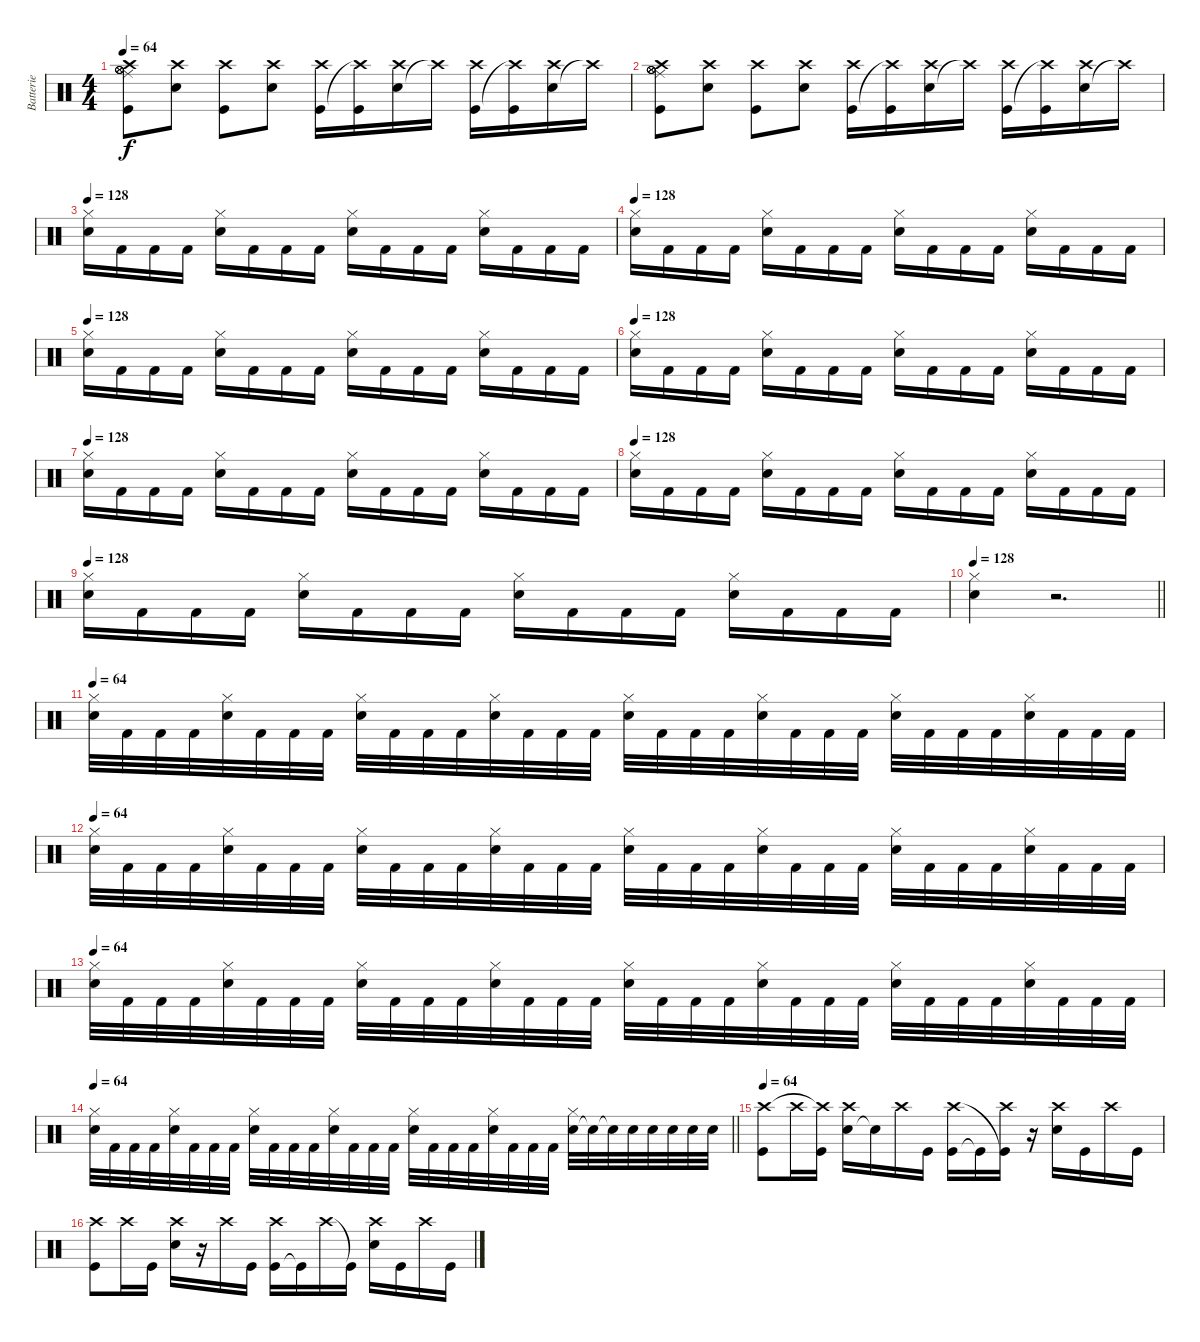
\track ("Batterie" "Batterie") {instrument percussion}
\staff {score}
\articulation defaults
\ts (4 4)
\tempo 64
\clef neutral
\ks c
("Kick (hit)" "Hi-Hat (open)" "Hi-Hat (open)" "Hi-Hat (open)" "Ride (middle)" "Crash high (hit)").8{dy f} ("Snare (hit) 2" "Crash high (hit)").8 ("Kick (hit)" "Crash high (hit)").8 ("Snare (hit) 2" "Crash high (hit)").8 ("Kick (hit)" "Crash high (hit)").16 ("Crash high (hit)"{t} "Kick (hit)").16 ("Snare (hit) 2" "Crash high (hit)").16 "Crash high (hit)"{t}.16 ("Kick (hit)" "Crash high (hit)").16 ("Crash high (hit)"{t} "Kick (hit)").16 ("Snare (hit) 2" "Crash high (hit)").16 "Crash high (hit)"{t}.16 |
("Kick (hit)" "Hi-Hat (open)" "Hi-Hat (open)" "Hi-Hat (open)" "Ride (middle)" "Crash high (hit)").8 ("Snare (hit) 2" "Crash high (hit)").8 ("Kick (hit)" "Crash high (hit)").8 ("Snare (hit) 2" "Crash high (hit)").8 ("Kick (hit)" "Crash high (hit)").16 ("Crash high (hit)"{t} "Kick (hit)").16 ("Snare (hit) 2" "Crash high (hit)").16 "Crash high (hit)"{t}.16 ("Kick (hit)" "Crash high (hit)").16 ("Crash high (hit)"{t} "Kick (hit)").16 ("Snare (hit) 2" "Crash high (hit)").16 "Crash high (hit)"{t}.16 |
\tempo 128
("Electric Snare (hit)" "Hi-Hat (closed)").16 "Kick (hit) 2".16 "Kick (hit) 2".16 "Kick (hit) 2".16 ("Hi-Hat (closed)" "Electric Snare (hit)").16 "Kick (hit) 2".16 "Kick (hit) 2".16 "Kick (hit) 2".16 ("Electric Snare (hit)" "Hi-Hat (closed)").16 "Kick (hit) 2".16 "Kick (hit) 2".16 "Kick (hit) 2".16 ("Electric Snare (hit)" "Hi-Hat (closed)").16 "Kick (hit) 2".16 "Kick (hit) 2".16 "Kick (hit) 2".16 |
\tempo 128
("Electric Snare (hit)" "Hi-Hat (closed)").16 "Kick (hit) 2".16 "Kick (hit) 2".16 "Kick (hit) 2".16 ("Hi-Hat (closed)" "Electric Snare (hit)").16 "Kick (hit) 2".16 "Kick (hit) 2".16 "Kick (hit) 2".16 ("Electric Snare (hit)" "Hi-Hat (closed)").16 "Kick (hit) 2".16 "Kick (hit) 2".16 "Kick (hit) 2".16 ("Electric Snare (hit)" "Hi-Hat (closed)").16 "Kick (hit) 2".16 "Kick (hit) 2".16 "Kick (hit) 2".16 |
\tempo 128
("Electric Snare (hit)" "Hi-Hat (closed)").16 "Kick (hit) 2".16 "Kick (hit) 2".16 "Kick (hit) 2".16 ("Hi-Hat (closed)" "Electric Snare (hit)").16 "Kick (hit) 2".16 "Kick (hit) 2".16 "Kick (hit) 2".16 ("Electric Snare (hit)" "Hi-Hat (closed)").16 "Kick (hit) 2".16 "Kick (hit) 2".16 "Kick (hit) 2".16 ("Electric Snare (hit)" "Hi-Hat (closed)").16 "Kick (hit) 2".16 "Kick (hit) 2".16 "Kick (hit) 2".16 |
\tempo 128
("Electric Snare (hit)" "Hi-Hat (closed)").16 "Kick (hit) 2".16 "Kick (hit) 2".16 "Kick (hit) 2".16 ("Hi-Hat (closed)" "Electric Snare (hit)").16 "Kick (hit) 2".16 "Kick (hit) 2".16 "Kick (hit) 2".16 ("Electric Snare (hit)" "Hi-Hat (closed)").16 "Kick (hit) 2".16 "Kick (hit) 2".16 "Kick (hit) 2".16 ("Electric Snare (hit)" "Hi-Hat (closed)").16 "Kick (hit) 2".16 "Kick (hit) 2".16 "Kick (hit) 2".16 |
\tempo 128
("Electric Snare (hit)" "Hi-Hat (closed)").16 "Kick (hit) 2".16 "Kick (hit) 2".16 "Kick (hit) 2".16 ("Hi-Hat (closed)" "Electric Snare (hit)").16 "Kick (hit) 2".16 "Kick (hit) 2".16 "Kick (hit) 2".16 ("Electric Snare (hit)" "Hi-Hat (closed)").16 "Kick (hit) 2".16 "Kick (hit) 2".16 "Kick (hit) 2".16 ("Electric Snare (hit)" "Hi-Hat (closed)").16 "Kick (hit) 2".16 "Kick (hit) 2".16 "Kick (hit) 2".16 |
\tempo 128
("Electric Snare (hit)" "Hi-Hat (closed)").16 "Kick (hit) 2".16 "Kick (hit) 2".16 "Kick (hit) 2".16 ("Hi-Hat (closed)" "Electric Snare (hit)").16 "Kick (hit) 2".16 "Kick (hit) 2".16 "Kick (hit) 2".16 ("Electric Snare (hit)" "Hi-Hat (closed)").16 "Kick (hit) 2".16 "Kick (hit) 2".16 "Kick (hit) 2".16 ("Electric Snare (hit)" "Hi-Hat (closed)").16 "Kick (hit) 2".16 "Kick (hit) 2".16 "Kick (hit) 2".16 |
\tempo 128
("Electric Snare (hit)" "Hi-Hat (closed)").16 "Kick (hit) 2".16 "Kick (hit) 2".16 "Kick (hit) 2".16 ("Hi-Hat (closed)" "Electric Snare (hit)").16 "Kick (hit) 2".16 "Kick (hit) 2".16 "Kick (hit) 2".16 ("Electric Snare (hit)" "Hi-Hat (closed)").16 "Kick (hit) 2".16 "Kick (hit) 2".16 "Kick (hit) 2".16 ("Electric Snare (hit)" "Hi-Hat (closed)").16 "Kick (hit) 2".16 "Kick (hit) 2".16 "Kick (hit) 2".16 |
\tempo 128
\barLineRight lightlight
("Electric Snare (hit)" "Hi-Hat (closed)").4 r.2{d} |
\tempo 64
("Electric Snare (hit)" "Hi-Hat (closed)").32 "Kick (hit) 2".32 "Kick (hit) 2".32 "Kick (hit) 2".32 ("Hi-Hat (closed)" "Electric Snare (hit)").32 "Kick (hit) 2".32 "Kick (hit) 2".32 "Kick (hit) 2".32 ("Electric Snare (hit)" "Hi-Hat (closed)").32 "Kick (hit) 2".32 "Kick (hit) 2".32 "Kick (hit) 2".32 ("Electric Snare (hit)" "Hi-Hat (closed)").32 "Kick (hit) 2".32 "Kick (hit) 2".32 "Kick (hit) 2".32 ("Electric Snare (hit)" "Hi-Hat (closed)").32 "Kick (hit) 2".32 "Kick (hit) 2".32 "Kick (hit) 2".32 ("Hi-Hat (closed)" "Electric Snare (hit)").32 "Kick (hit) 2".32 "Kick (hit) 2".32 "Kick (hit) 2".32 ("Electric Snare (hit)" "Hi-Hat (closed)").32 "Kick (hit) 2".32 "Kick (hit) 2".32 "Kick (hit) 2".32 ("Electric Snare (hit)" "Hi-Hat (closed)").32 "Kick (hit) 2".32 "Kick (hit) 2".32 "Kick (hit) 2".32 |
\tempo 64
("Electric Snare (hit)" "Hi-Hat (closed)").32 "Kick (hit) 2".32 "Kick (hit) 2".32 "Kick (hit) 2".32 ("Hi-Hat (closed)" "Electric Snare (hit)").32 "Kick (hit) 2".32 "Kick (hit) 2".32 "Kick (hit) 2".32 ("Electric Snare (hit)" "Hi-Hat (closed)").32 "Kick (hit) 2".32 "Kick (hit) 2".32 "Kick (hit) 2".32 ("Electric Snare (hit)" "Hi-Hat (closed)").32 "Kick (hit) 2".32 "Kick (hit) 2".32 "Kick (hit) 2".32 ("Electric Snare (hit)" "Hi-Hat (closed)").32 "Kick (hit) 2".32 "Kick (hit) 2".32 "Kick (hit) 2".32 ("Hi-Hat (closed)" "Electric Snare (hit)").32 "Kick (hit) 2".32 "Kick (hit) 2".32 "Kick (hit) 2".32 ("Electric Snare (hit)" "Hi-Hat (closed)").32 "Kick (hit) 2".32 "Kick (hit) 2".32 "Kick (hit) 2".32 ("Electric Snare (hit)" "Hi-Hat (closed)").32 "Kick (hit) 2".32 "Kick (hit) 2".32 "Kick (hit) 2".32 |
\tempo 64
("Electric Snare (hit)" "Hi-Hat (closed)").32 "Kick (hit) 2".32 "Kick (hit) 2".32 "Kick (hit) 2".32 ("Hi-Hat (closed)" "Electric Snare (hit)").32 "Kick (hit) 2".32 "Kick (hit) 2".32 "Kick (hit) 2".32 ("Electric Snare (hit)" "Hi-Hat (closed)").32 "Kick (hit) 2".32 "Kick (hit) 2".32 "Kick (hit) 2".32 ("Electric Snare (hit)" "Hi-Hat (closed)").32 "Kick (hit) 2".32 "Kick (hit) 2".32 "Kick (hit) 2".32 ("Electric Snare (hit)" "Hi-Hat (closed)").32 "Kick (hit) 2".32 "Kick (hit) 2".32 "Kick (hit) 2".32 ("Hi-Hat (closed)" "Electric Snare (hit)").32 "Kick (hit) 2".32 "Kick (hit) 2".32 "Kick (hit) 2".32 ("Electric Snare (hit)" "Hi-Hat (closed)").32 "Kick (hit) 2".32 "Kick (hit) 2".32 "Kick (hit) 2".32 ("Electric Snare (hit)" "Hi-Hat (closed)").32 "Kick (hit) 2".32 "Kick (hit) 2".32 "Kick (hit) 2".32 |
\tempo 64
\barLineRight lightlight
("Electric Snare (hit)" "Hi-Hat (closed)").32 "Kick (hit) 2".32 "Kick (hit) 2".32 "Kick (hit) 2".32 ("Hi-Hat (closed)" "Electric Snare (hit)").32 "Kick (hit) 2".32 "Kick (hit) 2".32 "Kick (hit) 2".32 ("Electric Snare (hit)" "Hi-Hat (closed)").32 "Kick (hit) 2".32 "Kick (hit) 2".32 "Kick (hit) 2".32 ("Electric Snare (hit)" "Hi-Hat (closed)").32 "Kick (hit) 2".32 "Kick (hit) 2".32 "Kick (hit) 2".32 ("Electric Snare (hit)" "Hi-Hat (closed)").32 "Kick (hit) 2".32 "Kick (hit) 2".32 "Kick (hit) 2".32 ("Hi-Hat (closed)" "Electric Snare (hit)").32 "Kick (hit) 2".32 "Kick (hit) 2".32 "Kick (hit) 2".32 ("Electric Snare (hit)" "Hi-Hat (closed)").32 "Snare (hit) 2"{t}.32 "Snare (hit) 2"{t}.32 "Snare (hit) 2".32 "Electric Snare (hit)".32 "Snare (hit) 2".32 "Snare (hit) 2".32 "Snare (hit) 2".32 |
\tempo 64
("Kick (hit)" "Crash high (hit)").8 "Crash high (hit)".16 ("Kick (hit)" "Crash high (hit)"{t}).16 ("Snare (hit) 2" "Crash high (hit)").16 "Snare (hit) 2"{t}.16 "Crash high (hit)".16 "Kick (hit)".16 ("Kick (hit)" "Crash high (hit)").16 "Kick (hit)"{t}.16 ("Crash high (hit)" "Kick (hit)"{t}).16 r.16 ("Snare (hit) 2" "Crash high (hit)").16 "Kick (hit)".16 "Crash high (hit)".16 "Kick (hit)".16 |
("Kick (hit)" "Crash high (hit)").8 "Crash high (hit)".16 "Kick (hit)".16 ("Snare (hit) 2" "Crash high (hit)").16 r.16 "Crash high (hit)".16 "Kick (hit)".16 ("Kick (hit)" "Crash high (hit)").16 "Kick (hit)"{t}.16 "Crash high (hit)".16 "Kick (hit)"{t}.16 ("Snare (hit) 2" "Crash high (hit)").16 "Kick (hit)".16 "Crash high (hit)".16 "Kick (hit)".16
